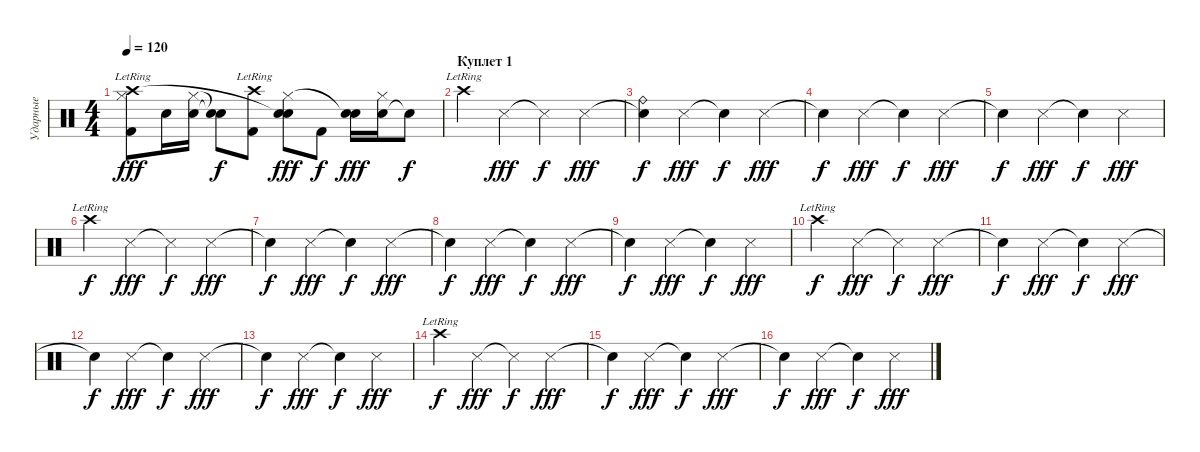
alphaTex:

\track ("Ударные" "Ударные") {instrument percussion}
\staff {score}
\articulation defaults
\ts (4 4)
\tempo 120
\clef neutral
\ks c
("Hi-Hat (closed)" "Kick (hit) 2" "Crash high (hit)"{lr}).8{dy fff} "Snare (hit) 2".16 ("Snare (hit) 2" "Hi-Hat (closed)").16 ("Snare (hit)"{t} "Snare (hit)"{t}).8{dy f} ("Kick (hit) 2" "Crash high (hit)"{lr}).8 ("Snare (hit) 2" "Hi-Hat (closed)" "Snare (hit)"{t}).8{dy fff} "Kick (hit) 2".8{dy f} ("Snare (hit) 2" "Snare (hit)"{t}).16{dy fff} ("Snare (hit) 2" "Hi-Hat (closed)").16 "Snare (hit)"{t}.8{dy f} |
\section ("" "Куплет 1")
"Crash high (hit)"{lr}.4 "Snare (side stick) 3".4{dy fff} "Snare (side stick) 3"{t}.4{dy f} "Snare (side stick) 3".4{dy fff} |
("Snare (hit)"{t} "Ride (bell)").4{dy f} "Snare (side stick) 3".4{dy fff} "Snare (hit)"{t}.4{dy f} "Snare (side stick) 3".4{dy fff} |
"Snare (hit)"{t}.4{dy f} "Snare (side stick) 3".4{dy fff} "Snare (hit)"{t}.4{dy f} "Snare (side stick) 3".4{dy fff} |
"Snare (hit)"{t}.4{dy f} "Snare (side stick) 3".4{dy fff} "Snare (hit)"{t}.4{dy f} "Snare (side stick) 3".4{dy fff} |
"Crash high (hit)"{lr}.4{dy f} "Snare (side stick) 3".4{dy fff} "Snare (side stick) 3"{t}.4{dy f} "Snare (side stick) 3".4{dy fff} |
"Snare (hit)"{t}.4{dy f} "Snare (side stick) 3".4{dy fff} "Snare (hit)"{t}.4{dy f} "Snare (side stick) 3".4{dy fff} |
"Snare (hit)"{t}.4{dy f} "Snare (side stick) 3".4{dy fff} "Snare (hit)"{t}.4{dy f} "Snare (side stick) 3".4{dy fff} |
"Snare (hit)"{t}.4{dy f} "Snare (side stick) 3".4{dy fff} "Snare (hit)"{t}.4{dy f} "Snare (side stick) 3".4{dy fff} |
"Crash high (hit)"{lr}.4{dy f} "Snare (side stick) 3".4{dy fff} "Snare (side stick) 3"{t}.4{dy f} "Snare (side stick) 3".4{dy fff} |
"Snare (hit)"{t}.4{dy f} "Snare (side stick) 3".4{dy fff} "Snare (hit)"{t}.4{dy f} "Snare (side stick) 3".4{dy fff} |
"Snare (hit)"{t}.4{dy f} "Snare (side stick) 3".4{dy fff} "Snare (hit)"{t}.4{dy f} "Snare (side stick) 3".4{dy fff} |
"Snare (hit)"{t}.4{dy f} "Snare (side stick) 3".4{dy fff} "Snare (hit)"{t}.4{dy f} "Snare (side stick) 3".4{dy fff} |
"Crash high (hit)"{lr}.4{dy f} "Snare (side stick) 3".4{dy fff} "Snare (side stick) 3"{t}.4{dy f} "Snare (side stick) 3".4{dy fff} |
"Snare (hit)"{t}.4{dy f} "Snare (side stick) 3".4{dy fff} "Snare (hit)"{t}.4{dy f} "Snare (side stick) 3".4{dy fff} |
"Snare (hit)"{t}.4{dy f} "Snare (side stick) 3".4{dy fff} "Snare (hit)"{t}.4{dy f} "Snare (side stick) 3".4{dy fff}
